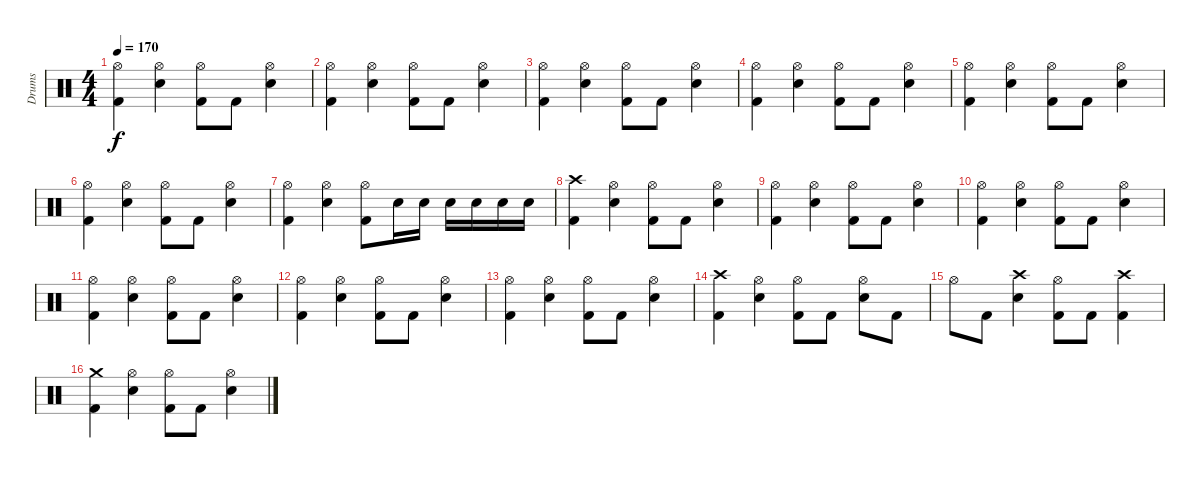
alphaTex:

\track ("Drums" "Drums") {instrument percussion}
\staff {score}
\articulation defaults
\ts (4 4)
\tempo 170
\clef neutral
\ks c
("Hi-Hat (open)" "Kick (hit) 2").4{dy f} ("Hi-Hat (open)" "Snare (hit) 2").4 ("Hi-Hat (open)" "Kick (hit) 2").8 "Kick (hit) 2".8 ("Hi-Hat (open)" "Snare (hit) 2").4 |
("Hi-Hat (open)" "Kick (hit) 2").4 ("Hi-Hat (open)" "Snare (hit) 2").4 ("Hi-Hat (open)" "Kick (hit) 2").8 "Kick (hit) 2".8 ("Hi-Hat (open)" "Snare (hit) 2").4 |
("Hi-Hat (open)" "Kick (hit) 2").4 ("Hi-Hat (open)" "Snare (hit) 2").4 ("Hi-Hat (open)" "Kick (hit) 2").8 "Kick (hit) 2".8 ("Hi-Hat (open)" "Snare (hit) 2").4 |
("Hi-Hat (open)" "Kick (hit) 2").4 ("Hi-Hat (open)" "Snare (hit) 2").4 ("Hi-Hat (open)" "Kick (hit) 2").8 "Kick (hit) 2".8 ("Hi-Hat (open)" "Snare (hit) 2").4 |
("Hi-Hat (open)" "Kick (hit) 2").4 ("Hi-Hat (open)" "Snare (hit) 2").4 ("Hi-Hat (open)" "Kick (hit) 2").8 "Kick (hit) 2".8 ("Hi-Hat (open)" "Snare (hit) 2").4 |
("Hi-Hat (open)" "Kick (hit) 2").4 ("Hi-Hat (open)" "Snare (hit) 2").4 ("Hi-Hat (open)" "Kick (hit) 2").8 "Kick (hit) 2".8 ("Hi-Hat (open)" "Snare (hit) 2").4 |
("Hi-Hat (open)" "Kick (hit) 2").4 ("Hi-Hat (open)" "Snare (hit) 2").4 ("Hi-Hat (open)" "Kick (hit) 2").8 "Snare (hit) 2".16 "Snare (hit) 2".16 "Snare (hit) 2".16 "Snare (hit) 2".16 "Snare (hit) 2".16 "Snare (hit) 2".16 |
("Crash high (hit)" "Kick (hit) 2").4 ("Hi-Hat (open)" "Snare (hit) 2").4 ("Hi-Hat (open)" "Kick (hit) 2").8 "Kick (hit) 2".8 ("Hi-Hat (open)" "Snare (hit) 2").4 |
("Hi-Hat (open)" "Kick (hit) 2").4 ("Hi-Hat (open)" "Snare (hit) 2").4 ("Hi-Hat (open)" "Kick (hit) 2").8 "Kick (hit) 2".8 ("Hi-Hat (open)" "Snare (hit) 2").4 |
("Hi-Hat (open)" "Kick (hit) 2").4 ("Hi-Hat (open)" "Snare (hit) 2").4 ("Hi-Hat (open)" "Kick (hit) 2").8 "Kick (hit) 2".8 ("Hi-Hat (open)" "Snare (hit) 2").4 |
("Hi-Hat (open)" "Kick (hit) 2").4 ("Hi-Hat (open)" "Snare (hit) 2").4 ("Hi-Hat (open)" "Kick (hit) 2").8 "Kick (hit) 2".8 ("Hi-Hat (open)" "Snare (hit) 2").4 |
("Hi-Hat (open)" "Kick (hit) 2").4 ("Hi-Hat (open)" "Snare (hit) 2").4 ("Hi-Hat (open)" "Kick (hit) 2").8 "Kick (hit) 2".8 ("Hi-Hat (open)" "Snare (hit) 2").4 |
("Hi-Hat (open)" "Kick (hit) 2").4 ("Hi-Hat (open)" "Snare (hit) 2").4 ("Hi-Hat (open)" "Kick (hit) 2").8 "Kick (hit) 2".8 ("Hi-Hat (open)" "Snare (hit) 2").4 |
("Crash high (hit)" "Kick (hit) 2").4 ("Hi-Hat (open)" "Snare (hit) 2").4 ("Hi-Hat (open)" "Kick (hit) 2").8 "Kick (hit) 2".8 ("Hi-Hat (open)" "Snare (hit) 2").8 "Kick (hit) 2".8 |
"Hi-Hat (open)".8 "Kick (hit) 2".8 ("Crash high (hit)" "Snare (hit) 2").4 ("Hi-Hat (open)" "Kick (hit) 2").8 "Kick (hit) 2".8 ("Crash high (hit)" "Kick (hit) 2").4 |
("Crash medium (hit)" "Kick (hit) 2").4 ("Hi-Hat (open)" "Snare (hit) 2").4 ("Hi-Hat (open)" "Kick (hit) 2").8 "Kick (hit) 2".8 ("Hi-Hat (open)" "Snare (hit) 2").4
